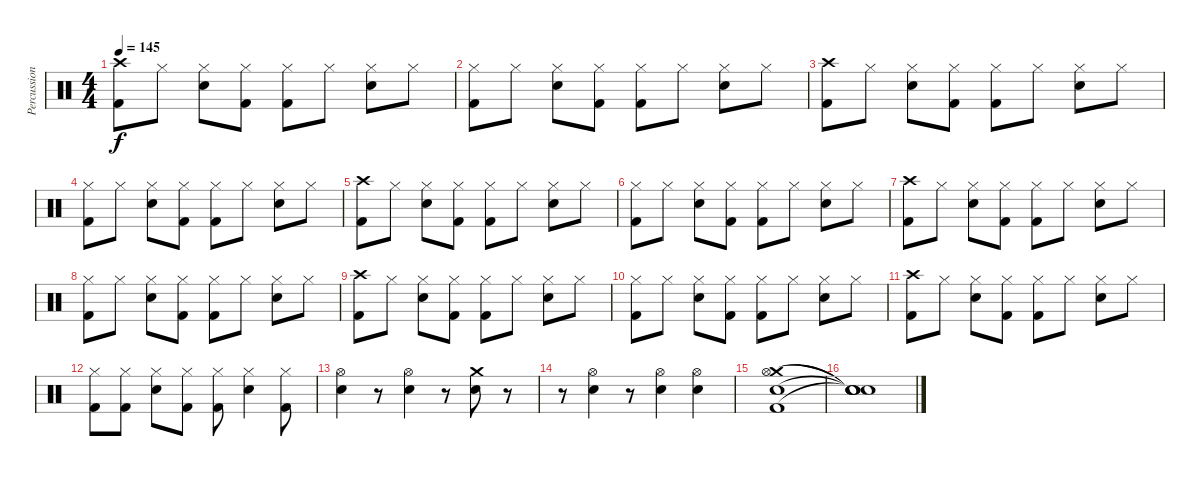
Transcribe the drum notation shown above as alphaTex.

\track ("Percussion" "Percussion") {instrument percussion}
\staff {score}
\articulation defaults
\ts (4 4)
\tempo 145
\clef neutral
\ks c
("Crash high (hit)" "Kick (hit) 2").8{dy f} "Hi-Hat (closed)".8 ("Hi-Hat (closed)" "Electric Snare (hit)").8 ("Hi-Hat (closed)" "Kick (hit) 2").8 ("Hi-Hat (closed)" "Kick (hit) 2").8 "Hi-Hat (closed)".8 ("Hi-Hat (closed)" "Electric Snare (hit)").8 "Hi-Hat (closed)".8 |
("Hi-Hat (closed)" "Kick (hit) 2").8 "Hi-Hat (closed)".8 ("Hi-Hat (closed)" "Electric Snare (hit)").8 ("Hi-Hat (closed)" "Kick (hit) 2").8 ("Hi-Hat (closed)" "Kick (hit) 2").8 "Hi-Hat (closed)".8 ("Hi-Hat (closed)" "Electric Snare (hit)").8 "Hi-Hat (closed)".8 |
("Crash high (hit)" "Kick (hit) 2").8 "Hi-Hat (closed)".8 ("Hi-Hat (closed)" "Electric Snare (hit)").8 ("Hi-Hat (closed)" "Kick (hit) 2").8 ("Hi-Hat (closed)" "Kick (hit) 2").8 "Hi-Hat (closed)".8 ("Hi-Hat (closed)" "Electric Snare (hit)").8 "Hi-Hat (closed)".8 |
("Hi-Hat (closed)" "Kick (hit) 2").8 "Hi-Hat (closed)".8 ("Hi-Hat (closed)" "Electric Snare (hit)").8 ("Hi-Hat (closed)" "Kick (hit) 2").8 ("Hi-Hat (closed)" "Kick (hit) 2").8 "Hi-Hat (closed)".8 ("Hi-Hat (closed)" "Electric Snare (hit)").8 "Hi-Hat (closed)".8 |
("Crash high (hit)" "Kick (hit) 2").8 "Hi-Hat (closed)".8 ("Hi-Hat (closed)" "Electric Snare (hit)").8 ("Hi-Hat (closed)" "Kick (hit) 2").8 ("Hi-Hat (closed)" "Kick (hit) 2").8 "Hi-Hat (closed)".8 ("Hi-Hat (closed)" "Electric Snare (hit)").8 "Hi-Hat (closed)".8 |
("Hi-Hat (closed)" "Kick (hit) 2").8 "Hi-Hat (closed)".8 ("Hi-Hat (closed)" "Electric Snare (hit)").8 ("Hi-Hat (closed)" "Kick (hit) 2").8 ("Hi-Hat (closed)" "Kick (hit) 2").8 "Hi-Hat (closed)".8 ("Hi-Hat (closed)" "Electric Snare (hit)").8 "Hi-Hat (closed)".8 |
("Crash high (hit)" "Kick (hit) 2").8 "Hi-Hat (closed)".8 ("Hi-Hat (closed)" "Electric Snare (hit)").8 ("Hi-Hat (closed)" "Kick (hit) 2").8 ("Hi-Hat (closed)" "Kick (hit) 2").8 "Hi-Hat (closed)".8 ("Hi-Hat (closed)" "Electric Snare (hit)").8 "Hi-Hat (closed)".8 |
("Hi-Hat (closed)" "Kick (hit) 2").8 "Hi-Hat (closed)".8 ("Hi-Hat (closed)" "Electric Snare (hit)").8 ("Hi-Hat (closed)" "Kick (hit) 2").8 ("Hi-Hat (closed)" "Kick (hit) 2").8 "Hi-Hat (closed)".8 ("Hi-Hat (closed)" "Electric Snare (hit)").8 "Hi-Hat (closed)".8 |
("Crash high (hit)" "Kick (hit) 2").8 "Hi-Hat (closed)".8 ("Hi-Hat (closed)" "Electric Snare (hit)").8 ("Hi-Hat (closed)" "Kick (hit) 2").8 ("Hi-Hat (closed)" "Kick (hit) 2").8 "Hi-Hat (closed)".8 ("Hi-Hat (closed)" "Electric Snare (hit)").8 "Hi-Hat (closed)".8 |
("Hi-Hat (closed)" "Kick (hit) 2").8 "Hi-Hat (closed)".8 ("Hi-Hat (closed)" "Electric Snare (hit)").8 ("Hi-Hat (closed)" "Kick (hit) 2").8 ("Hi-Hat (closed)" "Kick (hit) 2").8 "Hi-Hat (closed)".8 ("Hi-Hat (closed)" "Electric Snare (hit)").8 "Hi-Hat (closed)".8 |
("Crash high (hit)" "Kick (hit) 2").8 "Hi-Hat (closed)".8 ("Hi-Hat (closed)" "Electric Snare (hit)").8 ("Hi-Hat (closed)" "Kick (hit) 2").8 ("Hi-Hat (closed)" "Kick (hit) 2").8 "Hi-Hat (closed)".8 ("Hi-Hat (closed)" "Electric Snare (hit)").8 "Hi-Hat (closed)".8 |
("Hi-Hat (closed)" "Kick (hit) 2").8 ("Hi-Hat (closed)" "Kick (hit) 2").8 ("Hi-Hat (closed)" "Electric Snare (hit)").8 ("Hi-Hat (closed)" "Kick (hit) 2").8 ("Hi-Hat (closed)" "Kick (hit) 2").8 ("Hi-Hat (closed)" "Electric Snare (hit)").4 ("Hi-Hat (closed)" "Kick (hit) 2").8 |
("Hi-Hat (open)" "Snare (hit) 2").4 r.8 ("Hi-Hat (open)" "Snare (hit) 2").4 r.8 ("Crash medium (hit)" "Snare (hit) 2").8 r.8 |
r.8 ("Hi-Hat (open)" "Snare (hit) 2").4 r.8 ("Hi-Hat (open)" "Snare (hit) 2").4 ("Hi-Hat (open)" "Snare (hit) 2").4 |
("Crash medium (hit)" "Hi-Hat (open)" "Snare (hit) 2" "Kick (hit) 2").1 |
("Snare (hit)"{t} "Snare (hit)"{t} "Snare (hit)"{t} "Snare (hit)"{t}).1
